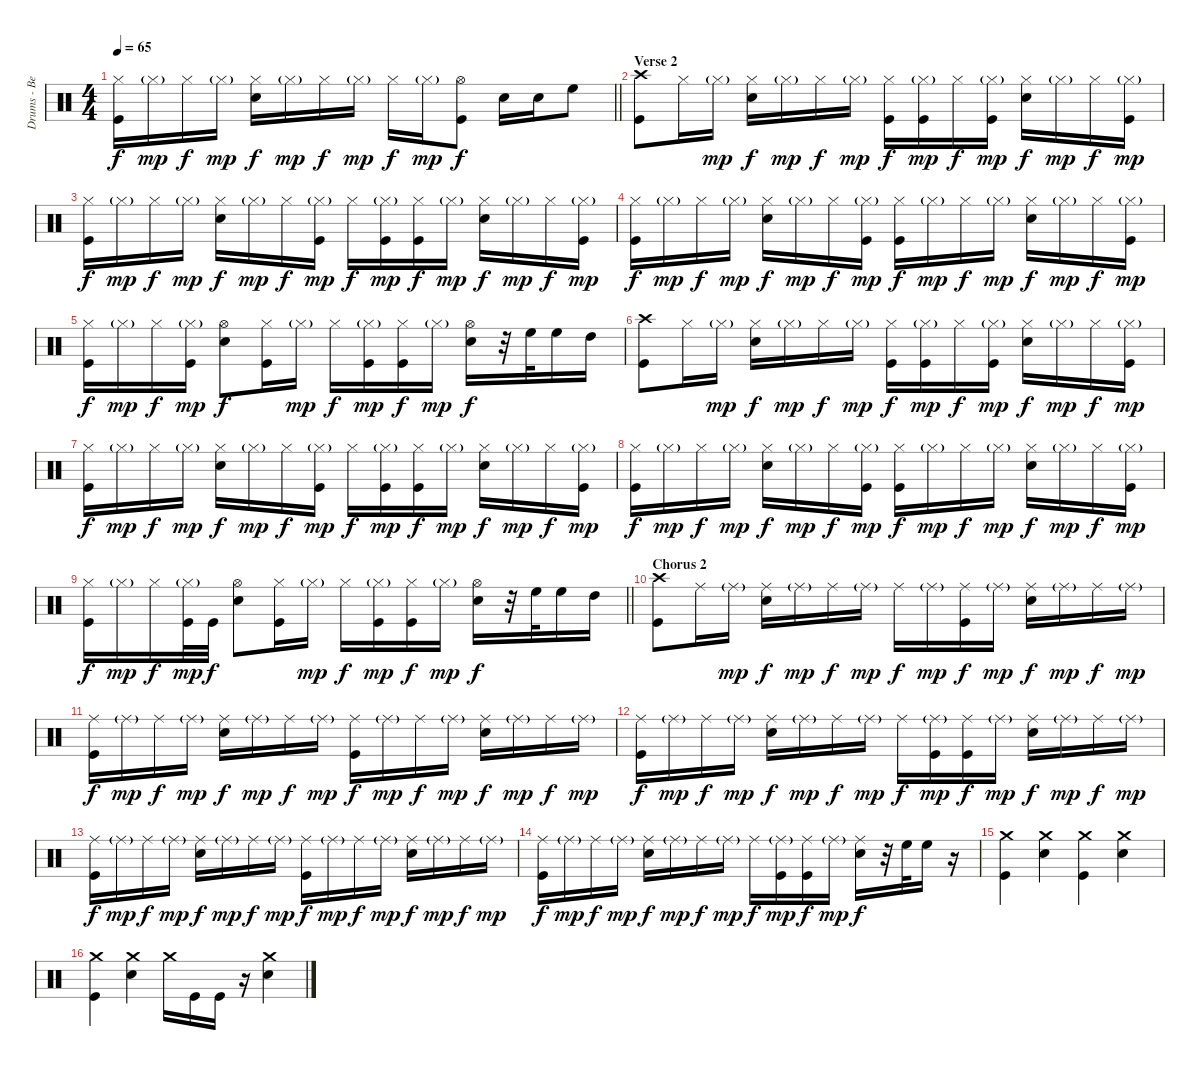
\track ("Drums - Ben Johnston" "Drums - Be") {instrument percussion}
\staff {score}
\articulation defaults
\ts (4 4)
\tempo 65
\clef neutral
\barLineRight lightlight
\ks c
("Hi-Hat (closed)" "Kick (hit)").16{dy f} "Hi-Hat (closed)"{g}.16{dy mp} "Hi-Hat (closed)".16{dy f} "Hi-Hat (closed)"{g}.16{dy mp} ("Hi-Hat (closed)" "Snare (hit) 2").16{dy f} "Hi-Hat (closed)"{g}.16{dy mp} "Hi-Hat (closed)".16{dy f} "Hi-Hat (closed)"{g}.16{dy mp} "Hi-Hat (closed)".16{dy f} "Hi-Hat (closed)"{g}.16{dy mp} ("Hi-Hat (open)" "Kick (hit)").8{dy f} "Snare (hit) 2".16 "Snare (hit) 2".16 "High Floor Tom (hit)".8 |
\section ("" "Verse 2")
("Crash high (hit)" "Kick (hit)").8 "Hi-Hat (closed)".16 "Hi-Hat (closed)"{g}.16{dy mp} ("Hi-Hat (closed)" "Snare (hit) 2").16{dy f} "Hi-Hat (closed)"{g}.16{dy mp} "Hi-Hat (closed)".16{dy f} "Hi-Hat (closed)"{g}.16{dy mp} ("Hi-Hat (closed)" "Kick (hit)").16{dy f} ("Hi-Hat (closed)"{g} "Kick (hit)").16{dy mp} "Hi-Hat (closed)".16{dy f} ("Hi-Hat (closed)"{g} "Kick (hit)").16{dy mp} ("Hi-Hat (closed)" "Snare (hit) 2").16{dy f} "Hi-Hat (closed)"{g}.16{dy mp} "Hi-Hat (closed)".16{dy f} ("Hi-Hat (closed)"{g} "Kick (hit)").16{dy mp} |
("Hi-Hat (closed)" "Kick (hit)").16{dy f} "Hi-Hat (closed)"{g}.16{dy mp} "Hi-Hat (closed)".16{dy f} "Hi-Hat (closed)"{g}.16{dy mp} ("Hi-Hat (closed)" "Snare (hit) 2").16{dy f} "Hi-Hat (closed)"{g}.16{dy mp} "Hi-Hat (closed)".16{dy f} ("Hi-Hat (closed)"{g} "Kick (hit)").16{dy mp} "Hi-Hat (closed)".16{dy f} ("Hi-Hat (closed)"{g} "Kick (hit)").16{dy mp} ("Hi-Hat (closed)" "Kick (hit)").16{dy f} "Hi-Hat (closed)"{g}.16{dy mp} ("Hi-Hat (closed)" "Snare (hit) 2").16{dy f} "Hi-Hat (closed)"{g}.16{dy mp} "Hi-Hat (closed)".16{dy f} ("Hi-Hat (closed)"{g} "Kick (hit)").16{dy mp} |
("Hi-Hat (closed)" "Kick (hit)").16{dy f} "Hi-Hat (closed)"{g}.16{dy mp} "Hi-Hat (closed)".16{dy f} "Hi-Hat (closed)"{g}.16{dy mp} ("Hi-Hat (closed)" "Snare (hit) 2").16{dy f} "Hi-Hat (closed)"{g}.16{dy mp} "Hi-Hat (closed)".16{dy f} ("Hi-Hat (closed)"{g} "Kick (hit)").16{dy mp} ("Hi-Hat (closed)" "Kick (hit)").16{dy f} "Hi-Hat (closed)"{g}.16{dy mp} "Hi-Hat (closed)".16{dy f} "Hi-Hat (closed)"{g}.16{dy mp} ("Hi-Hat (closed)" "Snare (hit) 2").16{dy f} "Hi-Hat (closed)"{g}.16{dy mp} "Hi-Hat (closed)".16{dy f} ("Hi-Hat (closed)"{g} "Kick (hit)").16{dy mp} |
("Hi-Hat (closed)" "Kick (hit)").16{dy f} "Hi-Hat (closed)"{g}.16{dy mp} "Hi-Hat (closed)".16{dy f} ("Hi-Hat (closed)"{g} "Kick (hit)").16{dy mp} ("Hi-Hat (open)" "Snare (hit) 2").8{dy f} ("Hi-Hat (closed)" "Kick (hit)").16 "Hi-Hat (closed)"{g}.16{dy mp} "Hi-Hat (closed)".16{dy f} ("Hi-Hat (closed)"{g} "Kick (hit)").16{dy mp} ("Hi-Hat (closed)" "Kick (hit)").16{dy f} "Hi-Hat (closed)"{g}.16{dy mp} ("Hi-Hat (open)" "Snare (hit) 2").16{dy f} r.32 "High Floor Tom (hit)".32 "High Floor Tom (hit)".16 "High Tom (hit)".16 |
("Crash high (hit)" "Kick (hit)").8 "Hi-Hat (closed)".16 "Hi-Hat (closed)"{g}.16{dy mp} ("Hi-Hat (closed)" "Snare (hit) 2").16{dy f} "Hi-Hat (closed)"{g}.16{dy mp} "Hi-Hat (closed)".16{dy f} "Hi-Hat (closed)"{g}.16{dy mp} ("Hi-Hat (closed)" "Kick (hit)").16{dy f} ("Hi-Hat (closed)"{g} "Kick (hit)").16{dy mp} "Hi-Hat (closed)".16{dy f} ("Hi-Hat (closed)"{g} "Kick (hit)").16{dy mp} ("Hi-Hat (closed)" "Snare (hit) 2").16{dy f} "Hi-Hat (closed)"{g}.16{dy mp} "Hi-Hat (closed)".16{dy f} ("Hi-Hat (closed)"{g} "Kick (hit)").16{dy mp} |
("Hi-Hat (closed)" "Kick (hit)").16{dy f} "Hi-Hat (closed)"{g}.16{dy mp} "Hi-Hat (closed)".16{dy f} "Hi-Hat (closed)"{g}.16{dy mp} ("Hi-Hat (closed)" "Snare (hit) 2").16{dy f} "Hi-Hat (closed)"{g}.16{dy mp} "Hi-Hat (closed)".16{dy f} ("Hi-Hat (closed)"{g} "Kick (hit)").16{dy mp} "Hi-Hat (closed)".16{dy f} ("Hi-Hat (closed)"{g} "Kick (hit)").16{dy mp} ("Hi-Hat (closed)" "Kick (hit)").16{dy f} "Hi-Hat (closed)"{g}.16{dy mp} ("Hi-Hat (closed)" "Snare (hit) 2").16{dy f} "Hi-Hat (closed)"{g}.16{dy mp} "Hi-Hat (closed)".16{dy f} ("Hi-Hat (closed)"{g} "Kick (hit)").16{dy mp} |
("Hi-Hat (closed)" "Kick (hit)").16{dy f} "Hi-Hat (closed)"{g}.16{dy mp} "Hi-Hat (closed)".16{dy f} "Hi-Hat (closed)"{g}.16{dy mp} ("Hi-Hat (closed)" "Snare (hit) 2").16{dy f} "Hi-Hat (closed)"{g}.16{dy mp} "Hi-Hat (closed)".16{dy f} ("Hi-Hat (closed)"{g} "Kick (hit)").16{dy mp} ("Hi-Hat (closed)" "Kick (hit)").16{dy f} "Hi-Hat (closed)"{g}.16{dy mp} "Hi-Hat (closed)".16{dy f} "Hi-Hat (closed)"{g}.16{dy mp} ("Hi-Hat (closed)" "Snare (hit) 2").16{dy f} "Hi-Hat (closed)"{g}.16{dy mp} "Hi-Hat (closed)".16{dy f} ("Hi-Hat (closed)"{g} "Kick (hit)").16{dy mp} |
\barLineRight lightlight
("Hi-Hat (closed)" "Kick (hit)").16{dy f} "Hi-Hat (closed)"{g}.16{dy mp} "Hi-Hat (closed)".16{dy f} ("Hi-Hat (closed)"{g} "Kick (hit)").32{dy mp} "Kick (hit)".32{dy f} ("Hi-Hat (open)" "Snare (hit) 2").8 ("Hi-Hat (closed)" "Kick (hit)").16 "Hi-Hat (closed)"{g}.16{dy mp} "Hi-Hat (closed)".16{dy f} ("Hi-Hat (closed)"{g} "Kick (hit)").16{dy mp} ("Hi-Hat (closed)" "Kick (hit)").16{dy f} "Hi-Hat (closed)"{g}.16{dy mp} ("Hi-Hat (open)" "Snare (hit) 2").16{dy f} r.32 "High Floor Tom (hit)".32 "High Floor Tom (hit)".16 "High Tom (hit)".16 |
\section ("" "Chorus 2")
("Crash high (hit)" "Kick (hit)").8 "Ride (middle)".16 "Ride (middle)"{g}.16{dy mp} ("Ride (middle)" "Snare (hit) 2").16{dy f} "Ride (middle)"{g}.16{dy mp} "Ride (middle)".16{dy f} "Ride (middle)"{g}.16{dy mp} "Ride (middle)".16{dy f} "Ride (middle)"{g}.16{dy mp} ("Ride (middle)" "Kick (hit)").16{dy f} "Ride (middle)"{g}.16{dy mp} ("Ride (middle)" "Snare (hit) 2").16{dy f} "Ride (middle)"{g}.16{dy mp} "Ride (middle)".16{dy f} "Ride (middle)"{g}.16{dy mp} |
("Ride (middle)" "Kick (hit)").16{dy f} "Ride (middle)"{g}.16{dy mp} "Ride (middle)".16{dy f} "Ride (middle)"{g}.16{dy mp} ("Ride (middle)" "Snare (hit) 2").16{dy f} "Ride (middle)"{g}.16{dy mp} "Ride (middle)".16{dy f} "Ride (middle)"{g}.16{dy mp} ("Ride (middle)" "Kick (hit)").16{dy f} "Ride (middle)"{g}.16{dy mp} "Ride (middle)".16{dy f} "Ride (middle)"{g}.16{dy mp} ("Ride (middle)" "Snare (hit) 2").16{dy f} "Ride (middle)"{g}.16{dy mp} "Ride (middle)".16{dy f} "Ride (middle)"{g}.16{dy mp} |
("Ride (middle)" "Kick (hit)").16{dy f} "Ride (middle)"{g}.16{dy mp} "Ride (middle)".16{dy f} "Ride (middle)"{g}.16{dy mp} ("Ride (middle)" "Snare (hit) 2").16{dy f} "Ride (middle)"{g}.16{dy mp} "Ride (middle)".16{dy f} "Ride (middle)"{g}.16{dy mp} "Ride (middle)".16{dy f} ("Ride (middle)"{g} "Kick (hit)").16{dy mp} ("Ride (middle)" "Kick (hit)").16{dy f} "Ride (middle)"{g}.16{dy mp} ("Ride (middle)" "Snare (hit) 2").16{dy f} "Ride (middle)"{g}.16{dy mp} "Ride (middle)".16{dy f} "Ride (middle)"{g}.16{dy mp} |
("Ride (middle)" "Kick (hit)").16{dy f} "Ride (middle)"{g}.16{dy mp} "Ride (middle)".16{dy f} "Ride (middle)"{g}.16{dy mp} ("Ride (middle)" "Snare (hit) 2").16{dy f} "Ride (middle)"{g}.16{dy mp} "Ride (middle)".16{dy f} "Ride (middle)"{g}.16{dy mp} ("Ride (middle)" "Kick (hit)").16{dy f} "Ride (middle)"{g}.16{dy mp} "Ride (middle)".16{dy f} "Ride (middle)"{g}.16{dy mp} ("Ride (middle)" "Snare (hit) 2").16{dy f} "Ride (middle)"{g}.16{dy mp} "Ride (middle)".16{dy f} "Ride (middle)"{g}.16{dy mp} |
("Ride (middle)" "Kick (hit)").16{dy f} "Ride (middle)"{g}.16{dy mp} "Ride (middle)".16{dy f} "Ride (middle)"{g}.16{dy mp} ("Ride (middle)" "Snare (hit) 2").16{dy f} "Ride (middle)"{g}.16{dy mp} "Ride (middle)".16{dy f} "Ride (middle)"{g}.16{dy mp} "Ride (middle)".16{dy f} ("Ride (middle)"{g} "Kick (hit)").16{dy mp} ("Ride (middle)" "Kick (hit)").16{dy f} "Ride (middle)"{g}.16{dy mp} ("Ride (middle)" "Snare (hit) 2").16{dy f} r.32 "High Floor Tom (hit)".32 "High Floor Tom (hit)".16 r.16 |
("Crash medium (hit)" "Kick (hit)").4 ("Crash medium (hit)" "Snare (hit) 2").4 ("Crash medium (hit)" "Kick (hit)").4 ("Crash medium (hit)" "Snare (hit) 2").4 |
("Crash medium (hit)" "Kick (hit)").4 ("Crash medium (hit)" "Snare (hit) 2").4 "Crash medium (hit)".16 "Kick (hit)".16 "Kick (hit)".16 r.16 ("Crash medium (hit)" "Snare (hit) 2").4
